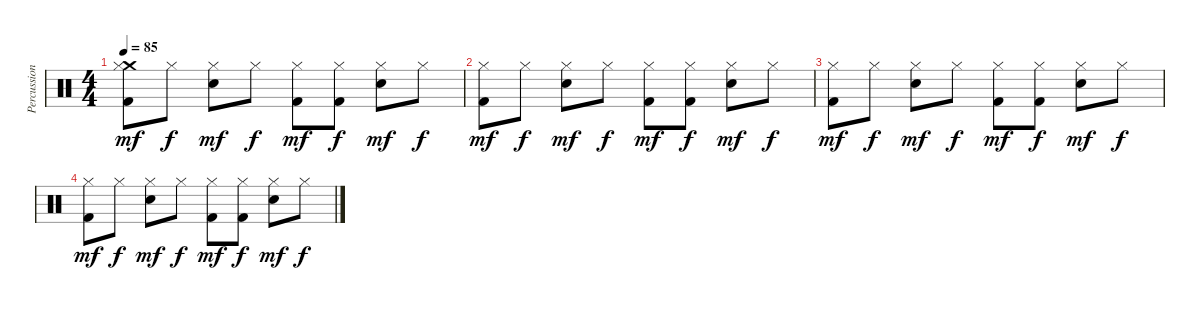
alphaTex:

\track ("Percussion" "Percussion") {instrument percussion}
\staff {score}
\articulation defaults
\ts (4 4)
\tempo 85
\clef neutral
\ks c
("Crash medium (hit)" "Hi-Hat (closed)" "Kick (hit) 2").8{dy mf} "Hi-Hat (closed)".8{dy f} ("Hi-Hat (closed)" "Snare (hit) 2").8{dy mf} "Hi-Hat (closed)".8{dy f} ("Hi-Hat (closed)" "Kick (hit) 2").8{dy mf} ("Hi-Hat (closed)" "Kick (hit) 2").8{dy f} ("Hi-Hat (closed)" "Snare (hit) 2").8{dy mf} "Hi-Hat (closed)".8{dy f} |
("Hi-Hat (closed)" "Kick (hit) 2").8{dy mf} "Hi-Hat (closed)".8{dy f} ("Hi-Hat (closed)" "Snare (hit) 2").8{dy mf} "Hi-Hat (closed)".8{dy f} ("Hi-Hat (closed)" "Kick (hit) 2").8{dy mf} ("Hi-Hat (closed)" "Kick (hit) 2").8{dy f} ("Hi-Hat (closed)" "Snare (hit) 2").8{dy mf} "Hi-Hat (closed)".8{dy f} |
("Hi-Hat (closed)" "Kick (hit) 2").8{dy mf} "Hi-Hat (closed)".8{dy f} ("Hi-Hat (closed)" "Snare (hit) 2").8{dy mf} "Hi-Hat (closed)".8{dy f} ("Hi-Hat (closed)" "Kick (hit) 2").8{dy mf} ("Hi-Hat (closed)" "Kick (hit) 2").8{dy f} ("Hi-Hat (closed)" "Snare (hit) 2").8{dy mf} "Hi-Hat (closed)".8{dy f} |
("Hi-Hat (closed)" "Kick (hit) 2").8{dy mf} "Hi-Hat (closed)".8{dy f} ("Hi-Hat (closed)" "Snare (hit) 2").8{dy mf} "Hi-Hat (closed)".8{dy f} ("Hi-Hat (closed)" "Kick (hit) 2").8{dy mf} ("Hi-Hat (closed)" "Kick (hit) 2").8{dy f} ("Hi-Hat (closed)" "Snare (hit) 2").8{dy mf} "Hi-Hat (closed)".8{dy f}
